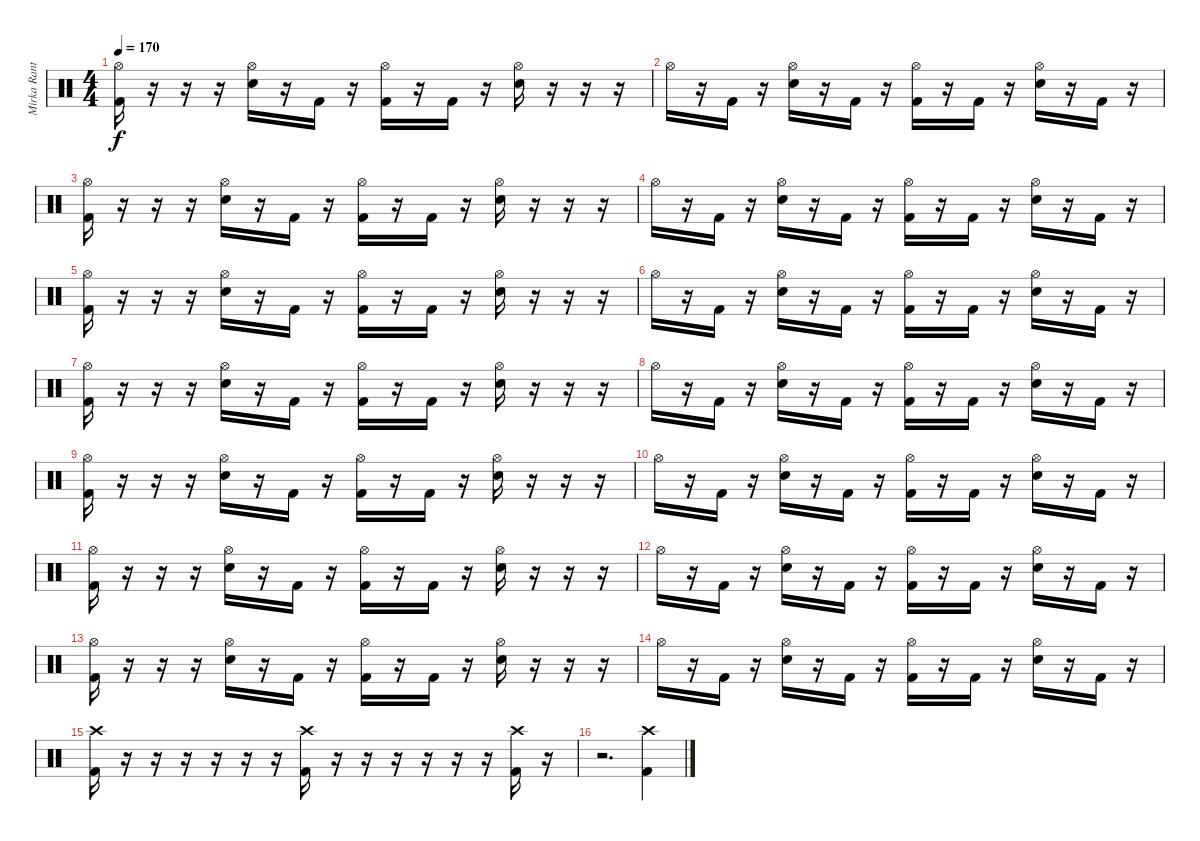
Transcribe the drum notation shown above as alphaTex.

\track ("Mirka Rantanen" "Mirka Rant") {instrument percussion}
\staff {score}
\articulation defaults
\ts (4 4)
\tempo 170
\clef neutral
\ks c
("Hi-Hat (open)" "Kick (hit) 2").16{dy f} r.16 r.16 r.16 ("Hi-Hat (open)" "Snare (hit) 2").16 r.16 "Kick (hit) 2".16 r.16 ("Hi-Hat (open)" "Kick (hit) 2").16 r.16 "Kick (hit) 2".16 r.16 ("Hi-Hat (open)" "Snare (hit) 2").16 r.16 r.16 r.16 |
"Hi-Hat (open)".16 r.16 "Kick (hit) 2".16 r.16 ("Hi-Hat (open)" "Snare (hit) 2").16 r.16 "Kick (hit) 2".16 r.16 ("Hi-Hat (open)" "Kick (hit) 2").16 r.16 "Kick (hit) 2".16 r.16 ("Hi-Hat (open)" "Snare (hit) 2").16 r.16 "Kick (hit) 2".16 r.16 |
("Hi-Hat (open)" "Kick (hit) 2").16 r.16 r.16 r.16 ("Hi-Hat (open)" "Snare (hit) 2").16 r.16 "Kick (hit) 2".16 r.16 ("Hi-Hat (open)" "Kick (hit) 2").16 r.16 "Kick (hit) 2".16 r.16 ("Hi-Hat (open)" "Snare (hit) 2").16 r.16 r.16 r.16 |
"Hi-Hat (open)".16 r.16 "Kick (hit) 2".16 r.16 ("Hi-Hat (open)" "Snare (hit) 2").16 r.16 "Kick (hit) 2".16 r.16 ("Hi-Hat (open)" "Kick (hit) 2").16 r.16 "Kick (hit) 2".16 r.16 ("Hi-Hat (open)" "Snare (hit) 2").16 r.16 "Kick (hit) 2".16 r.16 |
("Hi-Hat (open)" "Kick (hit) 2").16 r.16 r.16 r.16 ("Hi-Hat (open)" "Snare (hit) 2").16 r.16 "Kick (hit) 2".16 r.16 ("Hi-Hat (open)" "Kick (hit) 2").16 r.16 "Kick (hit) 2".16 r.16 ("Hi-Hat (open)" "Snare (hit) 2").16 r.16 r.16 r.16 |
"Hi-Hat (open)".16 r.16 "Kick (hit) 2".16 r.16 ("Hi-Hat (open)" "Snare (hit) 2").16 r.16 "Kick (hit) 2".16 r.16 ("Hi-Hat (open)" "Kick (hit) 2").16 r.16 "Kick (hit) 2".16 r.16 ("Hi-Hat (open)" "Snare (hit) 2").16 r.16 "Kick (hit) 2".16 r.16 |
("Hi-Hat (open)" "Kick (hit) 2").16 r.16 r.16 r.16 ("Hi-Hat (open)" "Snare (hit) 2").16 r.16 "Kick (hit) 2".16 r.16 ("Hi-Hat (open)" "Kick (hit) 2").16 r.16 "Kick (hit) 2".16 r.16 ("Hi-Hat (open)" "Snare (hit) 2").16 r.16 r.16 r.16 |
"Hi-Hat (open)".16 r.16 "Kick (hit) 2".16 r.16 ("Hi-Hat (open)" "Snare (hit) 2").16 r.16 "Kick (hit) 2".16 r.16 ("Hi-Hat (open)" "Kick (hit) 2").16 r.16 "Kick (hit) 2".16 r.16 ("Hi-Hat (open)" "Snare (hit) 2").16 r.16 "Kick (hit) 2".16 r.16 |
("Hi-Hat (open)" "Kick (hit) 2").16 r.16 r.16 r.16 ("Hi-Hat (open)" "Snare (hit) 2").16 r.16 "Kick (hit) 2".16 r.16 ("Hi-Hat (open)" "Kick (hit) 2").16 r.16 "Kick (hit) 2".16 r.16 ("Hi-Hat (open)" "Snare (hit) 2").16 r.16 r.16 r.16 |
"Hi-Hat (open)".16 r.16 "Kick (hit) 2".16 r.16 ("Hi-Hat (open)" "Snare (hit) 2").16 r.16 "Kick (hit) 2".16 r.16 ("Hi-Hat (open)" "Kick (hit) 2").16 r.16 "Kick (hit) 2".16 r.16 ("Hi-Hat (open)" "Snare (hit) 2").16 r.16 "Kick (hit) 2".16 r.16 |
("Hi-Hat (open)" "Kick (hit) 2").16 r.16 r.16 r.16 ("Hi-Hat (open)" "Snare (hit) 2").16 r.16 "Kick (hit) 2".16 r.16 ("Hi-Hat (open)" "Kick (hit) 2").16 r.16 "Kick (hit) 2".16 r.16 ("Hi-Hat (open)" "Snare (hit) 2").16 r.16 r.16 r.16 |
"Hi-Hat (open)".16 r.16 "Kick (hit) 2".16 r.16 ("Hi-Hat (open)" "Snare (hit) 2").16 r.16 "Kick (hit) 2".16 r.16 ("Hi-Hat (open)" "Kick (hit) 2").16 r.16 "Kick (hit) 2".16 r.16 ("Hi-Hat (open)" "Snare (hit) 2").16 r.16 "Kick (hit) 2".16 r.16 |
("Hi-Hat (open)" "Kick (hit) 2").16 r.16 r.16 r.16 ("Hi-Hat (open)" "Snare (hit) 2").16 r.16 "Kick (hit) 2".16 r.16 ("Hi-Hat (open)" "Kick (hit) 2").16 r.16 "Kick (hit) 2".16 r.16 ("Hi-Hat (open)" "Snare (hit) 2").16 r.16 r.16 r.16 |
"Hi-Hat (open)".16 r.16 "Kick (hit) 2".16 r.16 ("Hi-Hat (open)" "Snare (hit) 2").16 r.16 "Kick (hit) 2".16 r.16 ("Hi-Hat (open)" "Kick (hit) 2").16 r.16 "Kick (hit) 2".16 r.16 ("Hi-Hat (open)" "Snare (hit) 2").16 r.16 "Kick (hit) 2".16 r.16 |
("Crash high (hit)" "Kick (hit) 2").16 r.16 r.16 r.16 r.16 r.16 r.16 ("Crash high (hit)" "Kick (hit) 2").16 r.16 r.16 r.16 r.16 r.16 r.16 ("Crash high (hit)" "Kick (hit) 2").16 r.16 |
r.2{d} ("Crash high (hit)" "Kick (hit) 2").4
